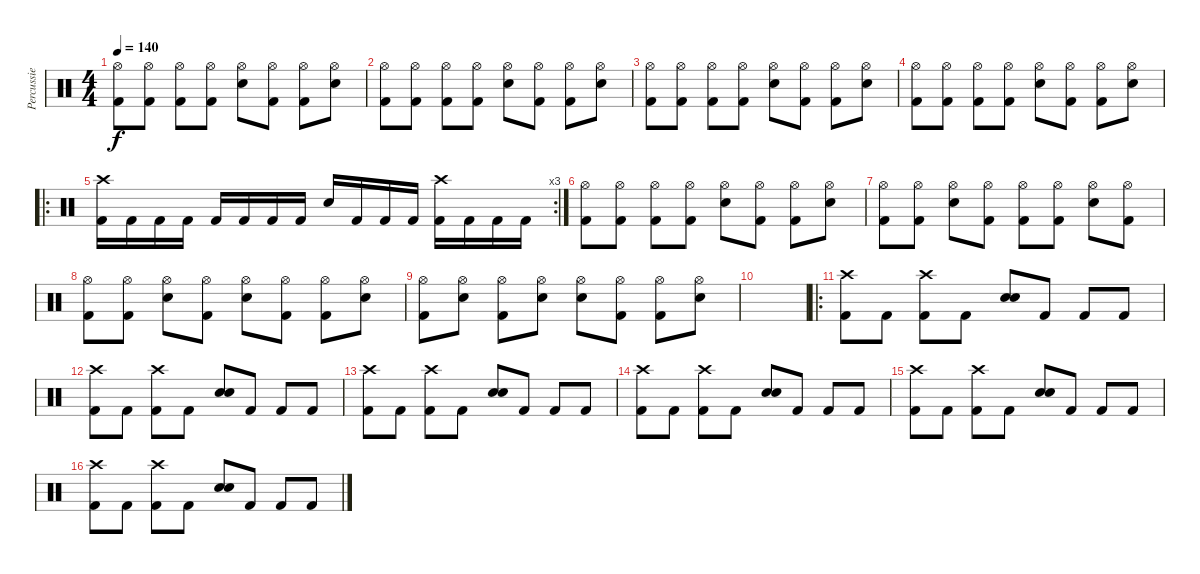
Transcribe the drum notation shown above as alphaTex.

\track ("Percussie" "Percussie") {instrument percussion}
\staff {score}
\articulation defaults
\ts (4 4)
\tempo 140
\clef neutral
\ks c
("Hi-Hat (open)" "Kick (hit) 2").8{dy f} ("Hi-Hat (open)" "Kick (hit) 2").8 ("Hi-Hat (open)" "Kick (hit) 2").8 ("Hi-Hat (open)" "Kick (hit) 2").8 ("Hi-Hat (open)" "Snare (hit) 2").8 ("Hi-Hat (open)" "Kick (hit) 2").8 ("Hi-Hat (open)" "Kick (hit) 2").8 ("Hi-Hat (open)" "Snare (hit) 2").8 |
("Hi-Hat (open)" "Kick (hit) 2").8 ("Hi-Hat (open)" "Kick (hit) 2").8 ("Hi-Hat (open)" "Kick (hit) 2").8 ("Hi-Hat (open)" "Kick (hit) 2").8 ("Hi-Hat (open)" "Snare (hit) 2").8 ("Hi-Hat (open)" "Kick (hit) 2").8 ("Hi-Hat (open)" "Kick (hit) 2").8 ("Hi-Hat (open)" "Snare (hit) 2").8 |
("Hi-Hat (open)" "Kick (hit) 2").8 ("Hi-Hat (open)" "Kick (hit) 2").8 ("Hi-Hat (open)" "Kick (hit) 2").8 ("Hi-Hat (open)" "Kick (hit) 2").8 ("Hi-Hat (open)" "Snare (hit) 2").8 ("Hi-Hat (open)" "Kick (hit) 2").8 ("Hi-Hat (open)" "Kick (hit) 2").8 ("Hi-Hat (open)" "Snare (hit) 2").8 |
("Hi-Hat (open)" "Kick (hit) 2").8 ("Hi-Hat (open)" "Kick (hit) 2").8 ("Hi-Hat (open)" "Kick (hit) 2").8 ("Hi-Hat (open)" "Kick (hit) 2").8 ("Hi-Hat (open)" "Snare (hit) 2").8 ("Hi-Hat (open)" "Kick (hit) 2").8 ("Hi-Hat (open)" "Kick (hit) 2").8 ("Hi-Hat (open)" "Snare (hit) 2").8 |
\ro
\rc 3
("Crash high (hit)" "Kick (hit) 2").16 "Kick (hit) 2".16 "Kick (hit) 2".16 "Kick (hit) 2".16 "Kick (hit) 2".16 "Kick (hit) 2".16 "Kick (hit) 2".16 "Kick (hit) 2".16 "Snare (hit) 2".16 "Kick (hit) 2".16 "Kick (hit) 2".16 "Kick (hit) 2".16 ("Crash high (hit)" "Kick (hit) 2").16 "Kick (hit) 2".16 "Kick (hit) 2".16 "Kick (hit) 2".16 |
("Hi-Hat (open)" "Kick (hit) 2").8 ("Hi-Hat (open)" "Kick (hit) 2").8 ("Hi-Hat (open)" "Kick (hit) 2").8 ("Hi-Hat (open)" "Kick (hit) 2").8 ("Hi-Hat (open)" "Snare (hit) 2").8 ("Hi-Hat (open)" "Kick (hit) 2").8 ("Hi-Hat (open)" "Kick (hit) 2").8 ("Hi-Hat (open)" "Snare (hit) 2").8 |
("Hi-Hat (open)" "Kick (hit) 2").8 ("Hi-Hat (open)" "Kick (hit) 2").8 ("Hi-Hat (open)" "Snare (hit) 2").8 ("Hi-Hat (open)" "Kick (hit) 2").8 ("Hi-Hat (open)" "Kick (hit) 2").8 ("Hi-Hat (open)" "Kick (hit) 2").8 ("Hi-Hat (open)" "Snare (hit) 2").8 ("Hi-Hat (open)" "Kick (hit) 2").8 |
("Hi-Hat (open)" "Kick (hit) 2").8 ("Hi-Hat (open)" "Kick (hit) 2").8 ("Hi-Hat (open)" "Snare (hit) 2").8 ("Hi-Hat (open)" "Kick (hit) 2").8 ("Hi-Hat (open)" "Snare (hit) 2").8 ("Hi-Hat (open)" "Kick (hit) 2").8 ("Hi-Hat (open)" "Kick (hit) 2").8 ("Hi-Hat (open)" "Snare (hit) 2").8 |
("Hi-Hat (open)" "Kick (hit) 2").8 ("Hi-Hat (open)" "Snare (hit) 2").8 ("Hi-Hat (open)" "Kick (hit) 2").8 ("Hi-Hat (open)" "Snare (hit) 2").8 ("Hi-Hat (open)" "Snare (hit) 2").8 ("Hi-Hat (open)" "Kick (hit) 2").8 ("Hi-Hat (open)" "Kick (hit) 2").8 ("Hi-Hat (open)" "Snare (hit) 2").8 |
|
\ro
("Crash high (hit)" "Kick (hit) 2").8 "Kick (hit) 2".8 ("Crash high (hit)" "Kick (hit) 2").8 "Kick (hit) 2".8 ("Snare (hit) 2" "Snare (hit) 2").8{bd 480} "Kick (hit) 2".8 "Kick (hit) 2".8 "Kick (hit) 2".8 |
("Crash high (hit)" "Kick (hit) 2").8 "Kick (hit) 2".8 ("Crash high (hit)" "Kick (hit) 2").8 "Kick (hit) 2".8 ("Snare (hit) 2" "Snare (hit) 2").8{bd 480} "Kick (hit) 2".8 "Kick (hit) 2".8 "Kick (hit) 2".8 |
("Crash high (hit)" "Kick (hit) 2").8 "Kick (hit) 2".8 ("Crash high (hit)" "Kick (hit) 2").8 "Kick (hit) 2".8 ("Snare (hit) 2" "Snare (hit) 2").8{bd 480} "Kick (hit) 2".8 "Kick (hit) 2".8 "Kick (hit) 2".8 |
("Crash high (hit)" "Kick (hit) 2").8 "Kick (hit) 2".8 ("Crash high (hit)" "Kick (hit) 2").8 "Kick (hit) 2".8 ("Snare (hit) 2" "Snare (hit) 2").8{bd 480} "Kick (hit) 2".8 "Kick (hit) 2".8 "Kick (hit) 2".8 |
("Crash high (hit)" "Kick (hit) 2").8 "Kick (hit) 2".8 ("Crash high (hit)" "Kick (hit) 2").8 "Kick (hit) 2".8 ("Snare (hit) 2" "Snare (hit) 2").8{bd 480} "Kick (hit) 2".8 "Kick (hit) 2".8 "Kick (hit) 2".8 |
("Crash high (hit)" "Kick (hit) 2").8 "Kick (hit) 2".8 ("Crash high (hit)" "Kick (hit) 2").8 "Kick (hit) 2".8 ("Snare (hit) 2" "Snare (hit) 2").8{bd 480} "Kick (hit) 2".8 "Kick (hit) 2".8 "Kick (hit) 2".8
